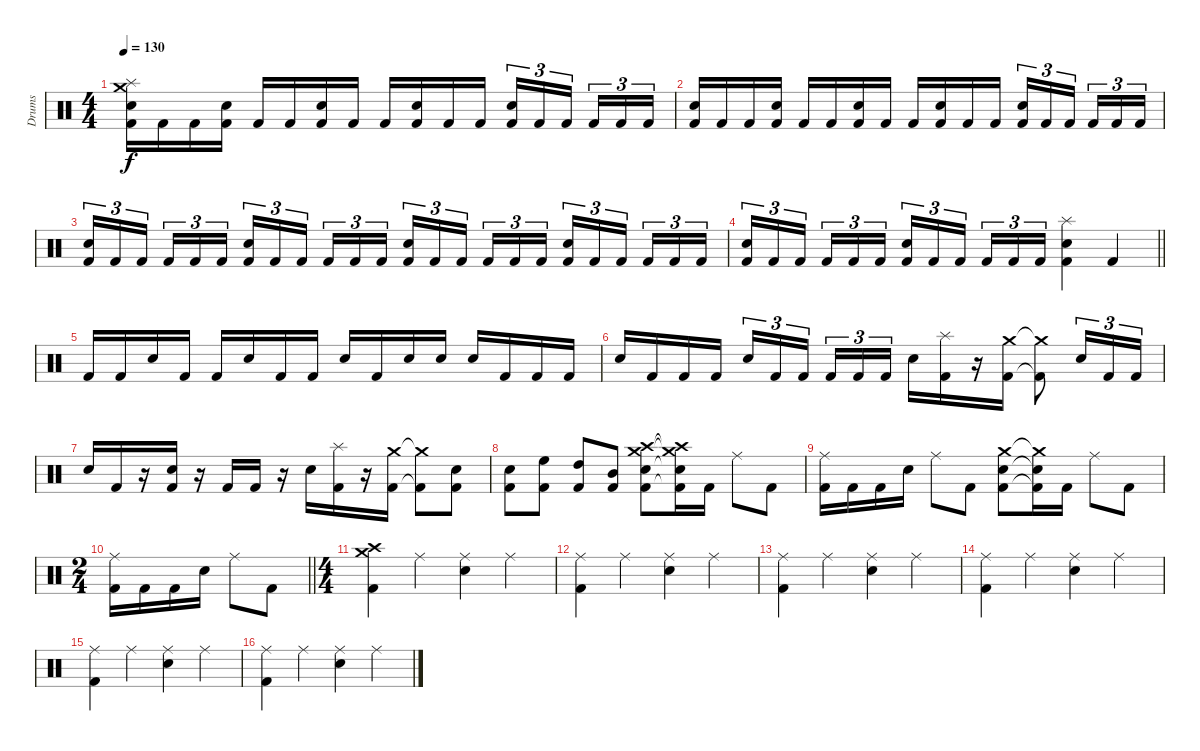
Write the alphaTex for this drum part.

\track ("Drums" "Drums") {instrument percussion}
\staff {score}
\articulation defaults
\ts (4 4)
\tempo 130
\clef neutral
\ks c
("Crash medium (hit)" "Splash (hit)" "Electric Snare (hit)" "Kick (hit) 2").16{dy f} "Kick (hit) 2".16 "Kick (hit) 2".16 ("Electric Snare (hit)" "Kick (hit) 2").16 "Kick (hit) 2".16 "Kick (hit) 2".16 ("Electric Snare (hit)" "Kick (hit) 2").16 "Kick (hit) 2".16 "Kick (hit) 2".16 ("Electric Snare (hit)" "Kick (hit) 2").16 "Kick (hit) 2".16 "Kick (hit) 2".16 ("Electric Snare (hit)" "Kick (hit) 2").16{tu (3 2)} "Kick (hit) 2".16{tu (3 2)} "Kick (hit) 2".16{tu (3 2)} "Kick (hit) 2".16{tu (3 2)} "Kick (hit) 2".16{tu (3 2)} "Kick (hit) 2".16{tu (3 2)} |
("Electric Snare (hit)" "Kick (hit) 2").16 "Kick (hit) 2".16 "Kick (hit) 2".16 ("Electric Snare (hit)" "Kick (hit) 2").16 "Kick (hit) 2".16 "Kick (hit) 2".16 ("Electric Snare (hit)" "Kick (hit) 2").16 "Kick (hit) 2".16 "Kick (hit) 2".16 ("Electric Snare (hit)" "Kick (hit) 2").16 "Kick (hit) 2".16 "Kick (hit) 2".16 ("Electric Snare (hit)" "Kick (hit) 2").16{tu (3 2)} "Kick (hit) 2".16{tu (3 2)} "Kick (hit) 2".16{tu (3 2)} "Kick (hit) 2".16{tu (3 2)} "Kick (hit) 2".16{tu (3 2)} "Kick (hit) 2".16{tu (3 2)} |
("Electric Snare (hit)" "Kick (hit) 2").16{tu (3 2)} "Kick (hit) 2".16{tu (3 2)} "Kick (hit) 2".16{tu (3 2)} "Kick (hit) 2".16{tu (3 2)} "Kick (hit) 2".16{tu (3 2)} "Kick (hit) 2".16{tu (3 2)} ("Electric Snare (hit)" "Kick (hit) 2").16{tu (3 2)} "Kick (hit) 2".16{tu (3 2)} "Kick (hit) 2".16{tu (3 2)} "Kick (hit) 2".16{tu (3 2)} "Kick (hit) 2".16{tu (3 2)} "Kick (hit) 2".16{tu (3 2)} ("Electric Snare (hit)" "Kick (hit) 2").16{tu (3 2)} "Kick (hit) 2".16{tu (3 2)} "Kick (hit) 2".16{tu (3 2)} "Kick (hit) 2".16{tu (3 2)} "Kick (hit) 2".16{tu (3 2)} "Kick (hit) 2".16{tu (3 2)} ("Electric Snare (hit)" "Kick (hit) 2").16{tu (3 2)} "Kick (hit) 2".16{tu (3 2)} "Kick (hit) 2".16{tu (3 2)} "Kick (hit) 2".16{tu (3 2)} "Kick (hit) 2".16{tu (3 2)} "Kick (hit) 2".16{tu (3 2)} |
\barLineRight lightlight
("Electric Snare (hit)" "Kick (hit) 2").16{tu (3 2)} "Kick (hit) 2".16{tu (3 2)} "Kick (hit) 2".16{tu (3 2)} "Kick (hit) 2".16{tu (3 2)} "Kick (hit) 2".16{tu (3 2)} "Kick (hit) 2".16{tu (3 2)} ("Electric Snare (hit)" "Kick (hit) 2").16{tu (3 2)} "Kick (hit) 2".16{tu (3 2)} "Kick (hit) 2".16{tu (3 2)} "Kick (hit) 2".16{tu (3 2)} "Kick (hit) 2".16{tu (3 2)} "Kick (hit) 2".16{tu (3 2)} ("Splash (hit)" "Electric Snare (hit)" "Kick (hit) 2").4 "Kick (hit) 2".4 |
"Kick (hit) 2".16 "Kick (hit) 2".16 "Electric Snare (hit)".16 "Kick (hit) 2".16 "Kick (hit) 2".16 "Electric Snare (hit)".16 "Kick (hit) 2".16 "Kick (hit) 2".16 "Electric Snare (hit)".16 "Kick (hit) 2".16 "Electric Snare (hit)".16 "Electric Snare (hit)".16 "Electric Snare (hit)".16 "Kick (hit) 2".16 "Kick (hit) 2".16 "Kick (hit) 2".16 |
"Electric Snare (hit)".16 "Kick (hit) 2".16 "Kick (hit) 2".16 "Kick (hit) 2".16 "Electric Snare (hit)".16{tu (3 2)} "Kick (hit) 2".16{tu (3 2)} "Kick (hit) 2".16{tu (3 2)} "Kick (hit) 2".16{tu (3 2)} "Kick (hit) 2".16{tu (3 2)} "Kick (hit) 2".16{tu (3 2)} "Electric Snare (hit)".16 ("Splash (hit)" "Kick (hit) 2").16 r.16 ("Crash medium (hit)" "Kick (hit) 2").16 ("Crash medium (hit)"{t} "Kick (hit) 2"{t}).8 "Electric Snare (hit)".16{tu (3 2)} "Kick (hit) 2".16{tu (3 2)} "Kick (hit) 2".16{tu (3 2)} |
"Electric Snare (hit)".16 "Kick (hit) 2".16 r.16 ("Electric Snare (hit)" "Kick (hit) 2").16 r.16 "Kick (hit) 2".16 "Kick (hit) 2".16 r.16 "Electric Snare (hit)".16 ("Splash (hit)" "Kick (hit) 2").16 r.16 ("Crash medium (hit)" "Kick (hit) 2").16 ("Crash medium (hit)"{t} "Kick (hit) 2"{t}).8 ("Electric Snare (hit)" "Kick (hit) 2").8 |
("Electric Snare (hit)" "Kick (hit) 2").8 ("High Floor Tom (hit)" "Kick (hit) 2").8 ("High Tom (hit)" "Kick (hit) 2").8 ("Mid Tom (hit)" "Kick (hit) 2").8 ("Crash high (hit)" "Crash medium (hit)" "Electric Snare (hit)" "Kick (hit) 2").8 ("Crash high (hit)"{t} "Crash medium (hit)"{t} "Electric Snare (hit)"{t} "Kick (hit) 2"{t}).16 "Kick (hit) 2".16 "Ride (middle)".8 "Kick (hit) 2".8 |
("Ride (middle)" "Kick (hit) 2").16 "Kick (hit) 2".16 "Kick (hit) 2".16 "Electric Snare (hit)".16 "Ride (middle)".8 "Kick (hit) 2".8 ("Crash medium (hit)" "Electric Snare (hit)" "Kick (hit) 2").8 ("Crash medium (hit)"{t} "Electric Snare (hit)"{t} "Kick (hit) 2"{t}).16 "Kick (hit) 2".16 "Ride (middle)".8 "Kick (hit) 2".8 |
\ts (2 4)
\barLineRight lightlight
("Ride (middle)" "Kick (hit) 2").16 "Kick (hit) 2".16 "Kick (hit) 2".16 "Electric Snare (hit)".16 "Ride (middle)".8 "Kick (hit) 2".8 |
\ts (4 4)
("Crash high (hit)" "Crash medium (hit)" "Kick (hit) 2").4 "Ride (middle)".4 ("Ride (middle)" "Electric Snare (hit)").4 "Ride (middle)".4 |
("Ride (middle)" "Kick (hit) 2").4 "Ride (middle)".4 ("Ride (middle)" "Electric Snare (hit)").4 "Ride (middle)".4 |
("Ride (middle)" "Kick (hit) 2").4 "Ride (middle)".4 ("Ride (middle)" "Electric Snare (hit)").4 "Ride (middle)".4 |
("Ride (middle)" "Kick (hit) 2").4 "Ride (middle)".4 ("Ride (middle)" "Electric Snare (hit)").4 "Ride (middle)".4 |
("Ride (middle)" "Kick (hit) 2").4 "Ride (middle)".4 ("Ride (middle)" "Electric Snare (hit)").4 "Ride (middle)".4 |
("Ride (middle)" "Kick (hit) 2").4 "Ride (middle)".4 ("Ride (middle)" "Electric Snare (hit)").4 "Ride (middle)".4
